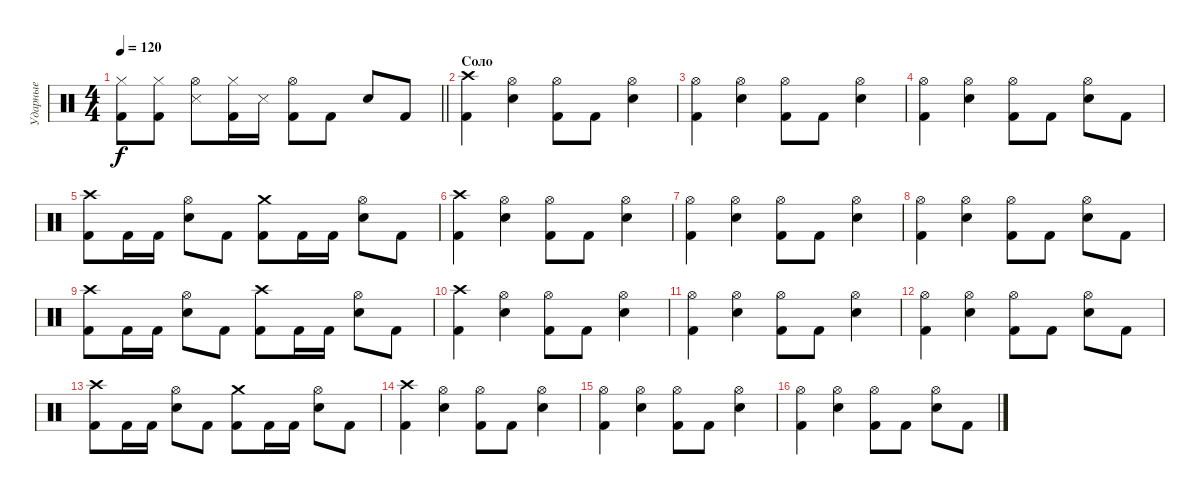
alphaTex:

\track ("Ударные" "Ударные") {instrument percussion}
\staff {score}
\articulation defaults
\ts (4 4)
\tempo 120
\clef neutral
\barLineRight lightlight
\ks c
("Kick (hit) 2" "Hi-Hat (closed)").8{dy f} ("Kick (hit) 2" "Hi-Hat (closed)").8 ("Snare (side stick) 3" "Hi-Hat (open)").8 ("Kick (hit) 2" "Hi-Hat (closed)").16 "Snare (side stick) 3".16 ("Kick (hit) 2" "Hi-Hat (open)").8 "Kick (hit) 2".8 "Snare (hit) 2".8 "Kick (hit) 2".8 |
\section ("" "Соло")
("Kick (hit) 2" "Crash high (hit)").4 ("Snare (hit) 2" "Hi-Hat (open)").4 ("Kick (hit) 2" "Hi-Hat (open)").8 "Kick (hit) 2".8 ("Snare (hit) 2" "Hi-Hat (open)").4 |
("Kick (hit) 2" "Hi-Hat (open)").4 ("Snare (hit) 2" "Hi-Hat (open)").4 ("Kick (hit) 2" "Hi-Hat (open)").8 "Kick (hit) 2".8 ("Snare (hit) 2" "Hi-Hat (open)").4 |
("Kick (hit) 2" "Hi-Hat (open)").4 ("Snare (hit) 2" "Hi-Hat (open)").4 ("Kick (hit) 2" "Hi-Hat (open)").8 "Kick (hit) 2".8 ("Snare (hit) 2" "Hi-Hat (open)").8 "Kick (hit) 2".8 |
("Kick (hit) 2" "Crash high (hit)").8 "Kick (hit) 2".16 "Kick (hit) 2".16 ("Snare (hit) 2" "Hi-Hat (open)").8 "Kick (hit) 2".8 ("Kick (hit) 2" "Crash medium (hit)").8 "Kick (hit) 2".16 "Kick (hit) 2".16 ("Snare (hit) 2" "Hi-Hat (open)").8 "Kick (hit) 2".8 |
("Kick (hit) 2" "Crash high (hit)").4 ("Snare (hit) 2" "Hi-Hat (open)").4 ("Kick (hit) 2" "Hi-Hat (open)").8 "Kick (hit) 2".8 ("Snare (hit) 2" "Hi-Hat (open)").4 |
("Kick (hit) 2" "Hi-Hat (open)").4 ("Snare (hit) 2" "Hi-Hat (open)").4 ("Kick (hit) 2" "Hi-Hat (open)").8 "Kick (hit) 2".8 ("Snare (hit) 2" "Hi-Hat (open)").4 |
("Kick (hit) 2" "Hi-Hat (open)").4 ("Snare (hit) 2" "Hi-Hat (open)").4 ("Kick (hit) 2" "Hi-Hat (open)").8 "Kick (hit) 2".8 ("Snare (hit) 2" "Hi-Hat (open)").8 "Kick (hit) 2".8 |
("Kick (hit) 2" "Crash high (hit)").8 "Kick (hit) 2".16 "Kick (hit) 2".16 ("Snare (hit) 2" "Hi-Hat (open)").8 "Kick (hit) 2".8 ("Kick (hit) 2" "Crash high (hit)").8 "Kick (hit) 2".16 "Kick (hit) 2".16 ("Snare (hit) 2" "Hi-Hat (open)").8 "Kick (hit) 2".8 |
("Kick (hit) 2" "Crash high (hit)").4 ("Snare (hit) 2" "Hi-Hat (open)").4 ("Kick (hit) 2" "Hi-Hat (open)").8 "Kick (hit) 2".8 ("Snare (hit) 2" "Hi-Hat (open)").4 |
("Kick (hit) 2" "Hi-Hat (open)").4 ("Snare (hit) 2" "Hi-Hat (open)").4 ("Kick (hit) 2" "Hi-Hat (open)").8 "Kick (hit) 2".8 ("Snare (hit) 2" "Hi-Hat (open)").4 |
("Kick (hit) 2" "Hi-Hat (open)").4 ("Snare (hit) 2" "Hi-Hat (open)").4 ("Kick (hit) 2" "Hi-Hat (open)").8 "Kick (hit) 2".8 ("Snare (hit) 2" "Hi-Hat (open)").8 "Kick (hit) 2".8 |
("Kick (hit) 2" "Crash high (hit)").8 "Kick (hit) 2".16 "Kick (hit) 2".16 ("Snare (hit) 2" "Hi-Hat (open)").8 "Kick (hit) 2".8 ("Kick (hit) 2" "Crash medium (hit)").8 "Kick (hit) 2".16 "Kick (hit) 2".16 ("Snare (hit) 2" "Hi-Hat (open)").8 "Kick (hit) 2".8 |
("Kick (hit) 2" "Crash high (hit)").4 ("Snare (hit) 2" "Hi-Hat (open)").4 ("Kick (hit) 2" "Hi-Hat (open)").8 "Kick (hit) 2".8 ("Snare (hit) 2" "Hi-Hat (open)").4 |
("Kick (hit) 2" "Hi-Hat (open)").4 ("Snare (hit) 2" "Hi-Hat (open)").4 ("Kick (hit) 2" "Hi-Hat (open)").8 "Kick (hit) 2".8 ("Snare (hit) 2" "Hi-Hat (open)").4 |
("Kick (hit) 2" "Hi-Hat (open)").4 ("Snare (hit) 2" "Hi-Hat (open)").4 ("Kick (hit) 2" "Hi-Hat (open)").8 "Kick (hit) 2".8 ("Snare (hit) 2" "Hi-Hat (open)").8 "Kick (hit) 2".8
